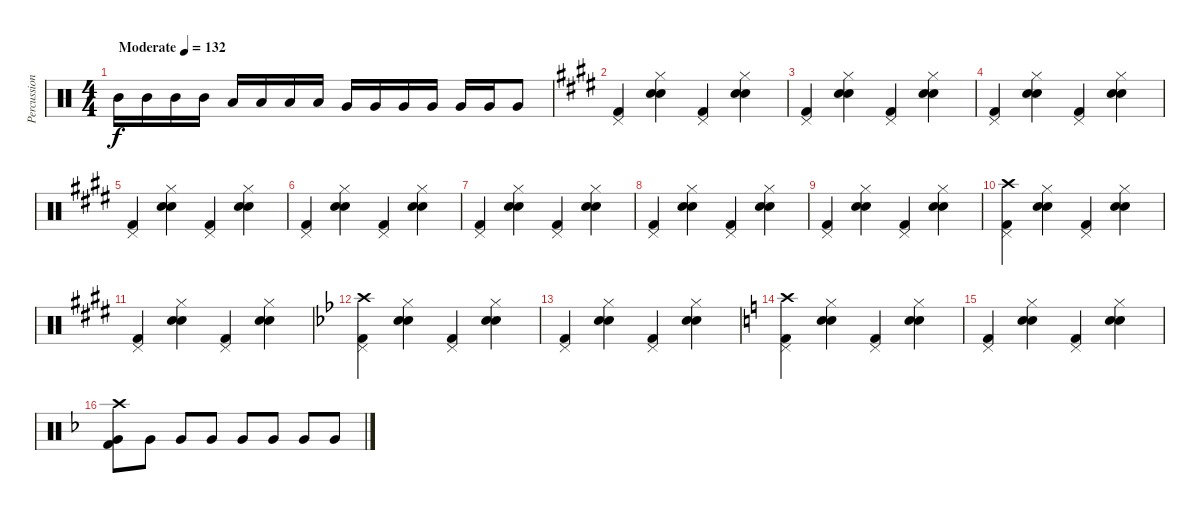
\track ("Percussion" "Percussion") {instrument percussion}
\staff {score}
\articulation defaults
\ts (4 4)
\tempo (132 "Moderate")
\clef neutral
\ks c "Mid Tom (hit)".16{dy f} "Mid Tom (hit)".16 "Mid Tom (hit)".16 "Mid Tom (hit)".16 "Low Tom (hit)".16 "Low Tom (hit)".16 "Low Tom (hit)".16 "Low Tom (hit)".16 "Very Low Tom (hit)".16 "Very Low Tom (hit)".16 "Very Low Tom (hit)".16 "Very Low Tom (hit)".16 "Very Low Tom (hit)".16 "Very Low Tom (hit)".16 "Very Low Tom (hit)".8
|
\ks e
("Pedal Hi-Hat (hit)" "Kick (hit) 2").4 ("Hi-Hat (closed)" "Electric Snare (hit)" "Hand Clap (hit)").4 ("Pedal Hi-Hat (hit)" "Kick (hit) 2").4 ("Hi-Hat (closed)" "Electric Snare (hit)" "Hand Clap (hit)").4 |
("Pedal Hi-Hat (hit)" "Kick (hit) 2").4 ("Hi-Hat (closed)" "Electric Snare (hit)" "Hand Clap (hit)").4 ("Pedal Hi-Hat (hit)" "Kick (hit) 2").4 ("Hi-Hat (closed)" "Electric Snare (hit)" "Hand Clap (hit)").4 |
("Pedal Hi-Hat (hit)" "Kick (hit) 2").4 ("Hi-Hat (closed)" "Electric Snare (hit)" "Hand Clap (hit)").4 ("Pedal Hi-Hat (hit)" "Kick (hit) 2").4 ("Hi-Hat (closed)" "Electric Snare (hit)" "Hand Clap (hit)").4 |
("Pedal Hi-Hat (hit)" "Kick (hit) 2").4 ("Hi-Hat (closed)" "Electric Snare (hit)" "Hand Clap (hit)").4 ("Pedal Hi-Hat (hit)" "Kick (hit) 2").4 ("Hi-Hat (closed)" "Electric Snare (hit)" "Hand Clap (hit)").4 |
("Pedal Hi-Hat (hit)" "Kick (hit) 2").4 ("Hi-Hat (closed)" "Electric Snare (hit)" "Hand Clap (hit)").4 ("Pedal Hi-Hat (hit)" "Kick (hit) 2").4 ("Hi-Hat (closed)" "Electric Snare (hit)" "Hand Clap (hit)").4 |
("Pedal Hi-Hat (hit)" "Kick (hit) 2").4 ("Hi-Hat (closed)" "Electric Snare (hit)" "Hand Clap (hit)").4 ("Pedal Hi-Hat (hit)" "Kick (hit) 2").4 ("Hi-Hat (closed)" "Electric Snare (hit)" "Hand Clap (hit)").4 |
("Pedal Hi-Hat (hit)" "Kick (hit) 2").4 ("Hi-Hat (closed)" "Electric Snare (hit)" "Hand Clap (hit)").4 ("Pedal Hi-Hat (hit)" "Kick (hit) 2").4 ("Hi-Hat (closed)" "Electric Snare (hit)" "Hand Clap (hit)").4 |
("Pedal Hi-Hat (hit)" "Kick (hit) 2").4 ("Hi-Hat (closed)" "Electric Snare (hit)" "Hand Clap (hit)").4 ("Pedal Hi-Hat (hit)" "Kick (hit) 2").4 ("Hi-Hat (closed)" "Electric Snare (hit)" "Hand Clap (hit)").4 |
("Crash high (hit)" "Pedal Hi-Hat (hit)" "Kick (hit) 2").4 ("Hi-Hat (closed)" "Electric Snare (hit)" "Hand Clap (hit)").4 ("Pedal Hi-Hat (hit)" "Kick (hit) 2").4 ("Hi-Hat (closed)" "Electric Snare (hit)" "Hand Clap (hit)").4 |
("Pedal Hi-Hat (hit)" "Kick (hit) 2").4 ("Hi-Hat (closed)" "Electric Snare (hit)" "Hand Clap (hit)").4 ("Pedal Hi-Hat (hit)" "Kick (hit) 2").4 ("Hi-Hat (closed)" "Electric Snare (hit)" "Hand Clap (hit)").4 |
\ks gminor
("Crash high (hit)" "Pedal Hi-Hat (hit)" "Kick (hit) 2").4 ("Hi-Hat (closed)" "Electric Snare (hit)" "Hand Clap (hit)").4 ("Pedal Hi-Hat (hit)" "Kick (hit) 2").4 ("Hi-Hat (closed)" "Electric Snare (hit)" "Hand Clap (hit)").4 |
("Pedal Hi-Hat (hit)" "Kick (hit) 2").4 ("Hi-Hat (closed)" "Electric Snare (hit)" "Hand Clap (hit)").4 ("Pedal Hi-Hat (hit)" "Kick (hit) 2").4 ("Hi-Hat (closed)" "Electric Snare (hit)" "Hand Clap (hit)").4 |
\ks aminor
("Crash high (hit)" "Pedal Hi-Hat (hit)" "Kick (hit) 2").4 ("Hi-Hat (closed)" "Electric Snare (hit)" "Hand Clap (hit)").4 ("Pedal Hi-Hat (hit)" "Kick (hit) 2").4 ("Hi-Hat (closed)" "Electric Snare (hit)" "Hand Clap (hit)").4 |
("Pedal Hi-Hat (hit)" "Kick (hit) 2").4 ("Hi-Hat (closed)" "Electric Snare (hit)" "Hand Clap (hit)").4 ("Pedal Hi-Hat (hit)" "Kick (hit) 2").4 ("Hi-Hat (closed)" "Electric Snare (hit)" "Hand Clap (hit)").4 |
\ks f
("Crash high (hit)" "Kick (hit) 2" "Very Low Tom (hit)").8 "Very Low Tom (hit)".8 "Very Low Tom (hit)".8 "Very Low Tom (hit)".8 "Very Low Tom (hit)".8 "Very Low Tom (hit)".8 "Very Low Tom (hit)".8 "Very Low Tom (hit)".8
